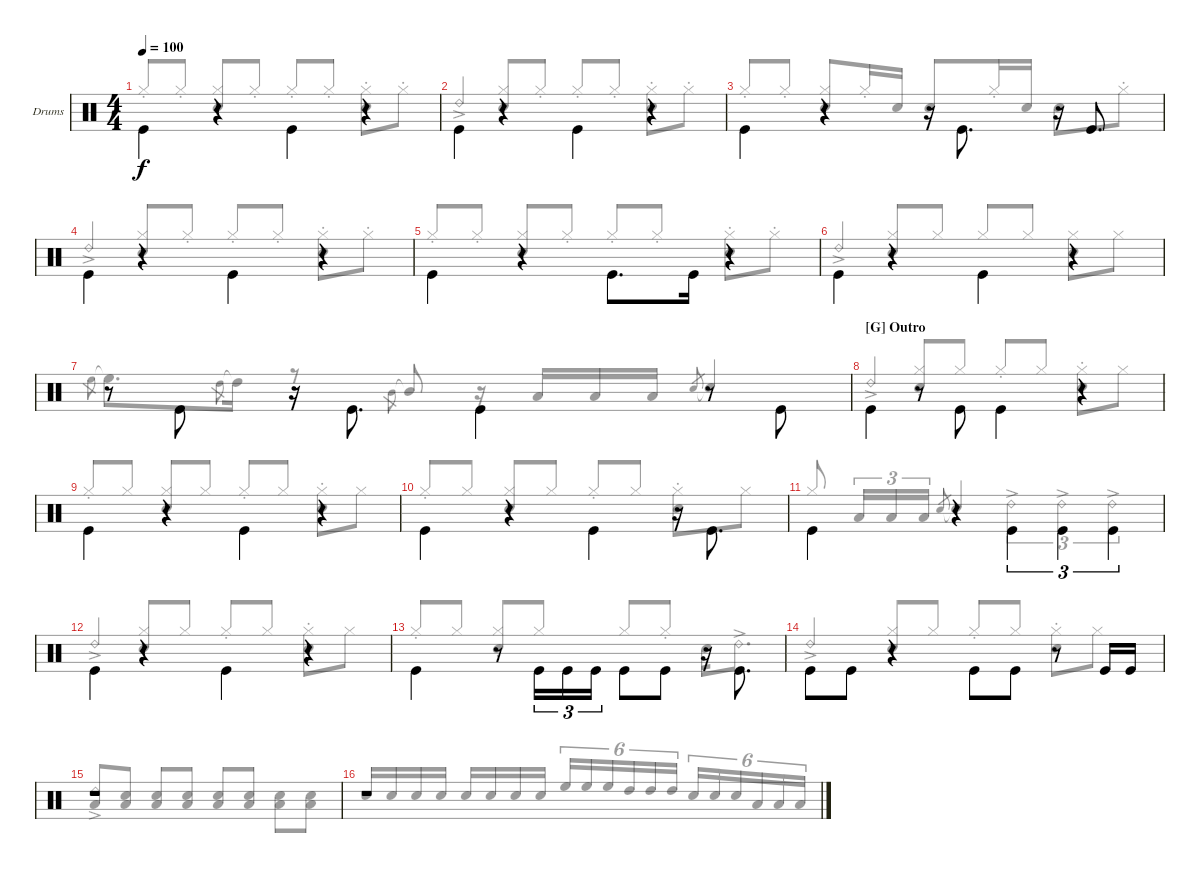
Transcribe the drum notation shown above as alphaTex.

\defaultSystemsLayout 4
\bracketExtendMode groupsimilarinstruments
\firstSystemTrackNameOrientation horizontal
\otherSystemsTrackNameOrientation horizontal
\track ("Drumkit" "Drums") {instrument percussion}
\staff {score}
\articulation defaults
\voice
\ts (4 4)
\tempo 100
\clef neutral
\scale
1.02648
\ks c "Kick (hit)".4{dy f beam invert}
r.4 "Kick (hit)".4{beam invert} r.4 |
\scale
0.973518 "Kick (hit)".4{beam invert} r.4 "Kick (hit)".4{beam invert} r.4 |
\scale
1.02648 "Kick (hit)".4{beam invert} r.4 r.16 "Kick (hit)".8{d beam invert} r.16 "Kick (hit)".8{d} |
\scale
0.973518 "Kick (hit)".4{beam invert} r.4{beam invert} "Kick (hit)".4{beam invert} r.4{beam invert} |
\scale
1.02648 "Kick (hit)".4{beam invert} r.4{beam invert} "Kick (hit)".8{d beam invert} "Kick (hit)".16 r.4{beam invert} |
\scale
0.973518 "Kick (hit)".4{beam invert} r.4{beam invert} "Kick (hit)".4{beam invert} r.4{beam invert} |
\scale
1.02648 r.8 "Kick (hit)".8{beam invert} r.16 "Kick (hit)".8{d} "Kick (hit)".4{beam invert} r.8{beam invert} "Kick (hit)".8{beam invert} |
\section ("G" "Outro")
\scale
0.973518 "Kick (hit)".4{beam invert} r.8{beam invert} "Kick (hit)".8{beam invert} "Kick (hit)".4{beam invert} r.4 |
\scale
1.02648 "Kick (hit)".4{beam invert} r.4{beam invert} "Kick (hit)".4{beam invert} r.4{beam invert} |
\scale
0.973518 "Kick (hit)".4{beam invert} r.4 "Kick (hit)".4{beam invert} r.16{beam invert} "Kick (hit)".8{d beam invert} |
\scale
1.02648 "Kick (hit)".4{beam invert} r.4 "Kick (hit)".4{tu (3 2) beam invert} "Kick (hit)".4{tu (3 2) beam invert} "Kick (hit)".4{tu (3 2) beam invert} |
\scale
0.973518 "Kick (hit)".4{beam invert} r.4{beam invert} "Kick (hit)".4{beam invert} r.4{beam invert} |
\scale
1.02648 "Kick (hit)".4{beam invert} r.8{beam invert} "Kick (hit)".16{tu (3 2) beam invert} "Kick (hit)".16{tu (3 2) beam invert} "Kick (hit)".16{tu (3 2) beam invert} "Kick (hit)".8{beam invert} "Kick (hit)".8 r.16 "Kick (hit)".8{d beam invert} |
\scale
0.973518 "Kick (hit)".8{beam invert} "Kick (hit)".8 r.4 "Kick (hit)".8{beam invert} "Kick (hit)".8 r.8 "Kick (hit)".16 "Kick (hit)".16 |
\scale
1.02648 r.1 |
\scale
0.973518 r.1
\voice
\clef neutral
\ottava regular
\simile none
\scale
1.02648
\ks c "Hi-Hat (closed)"{st}.8{dy f beam invert} "Hi-Hat (closed)"{st}.8
("Snare (hit) 2"{st} "Hi-Hat (closed)"{st}).8 "Hi-Hat (closed)"{st}.8 "Hi-Hat (closed)"{st}.8{beam invert} "Hi-Hat (closed)"{st}.8 ("Snare (hit) 2"{st} "Hi-Hat (closed)"{st}).8 "Hi-Hat (closed)"{st}.8 |
\scale
0.973518 "Ride (bell) 2"{ac}.4{beam invert} ("Snare (hit) 2"{st} "Hi-Hat (closed)"{st}).8{beam invert} "Hi-Hat (closed)"{st}.8 "Hi-Hat (closed)"{st}.8{beam invert} "Hi-Hat (closed)"{st}.8 ("Snare (hit) 2"{st} "Hi-Hat (closed)"{st}).8 "Hi-Hat (closed)"{st}.8 |
\scale
1.02648 "Hi-Hat (closed)"{st}.8{beam invert} "Hi-Hat (closed)"{st}.8 ("Snare (hit) 2"{st} "Hi-Hat (closed)"{st}).8 "Hi-Hat (closed)"{st}.16 "Snare (hit) 2".16 "Snare (hit) 2".8{beam invert} "Hi-Hat (closed)"{st}.16 "Snare (hit) 2".16 "Snare (hit) 2".8 "Hi-Hat (closed)"{st}.8 |
\scale
0.973518 "Ride (bell) 2"{ac}.4{beam invert} ("Snare (hit) 2"{st} "Hi-Hat (closed)"{st}).8{beam invert} "Hi-Hat (closed)"{st}.8 "Hi-Hat (closed)"{st}.8{beam invert} "Hi-Hat (closed)"{st}.8 ("Snare (hit) 2"{st} "Hi-Hat (closed)"{st}).8 "Hi-Hat (closed)"{st}.8 |
\scale
1.02648 "Hi-Hat (closed)"{st}.8{beam invert} "Hi-Hat (closed)"{st}.8 ("Snare (hit) 2"{st} "Hi-Hat (closed)"{st}).8 "Hi-Hat (closed)"{st}.8 "Hi-Hat (closed)"{st}.8{beam invert} "Hi-Hat (closed)"{st}.8 ("Snare (hit) 2"{st} "Hi-Hat (closed)"{st}).8 "Hi-Hat (closed)"{st}.8 |
\scale
0.973518 "Ride (bell) 2"{ac}.4{beam invert} ("Snare (hit) 2" "Hi-Hat (closed)").8{beam invert} "Hi-Hat (closed)".8 "Hi-Hat (closed)".8{beam invert} "Hi-Hat (closed)".8 ("Snare (hit) 2" "Hi-Hat (closed)").8 "Hi-Hat (closed)".8 |
\scale
1.02648 "High Floor Tom (hit)".8{gr} "High Floor Tom (hit)"{t}.8{d} "High Tom (hit)".8{gr} "High Tom (hit)"{t}.16 r.8 "Mid Tom (hit)".8{gr} "Mid Tom (hit)"{t}.8 r.16{beam invert} "Low Tom (hit)".16{beam invert} "Low Tom (hit)".16 "Low Tom (hit)".16 "Snare (hit) 2".8{gr beam invert} "Snare (hit) 2"{t}.4{beam invert} |
\scale
0.973518 "Ride (bell) 2"{ac}.4{beam invert} ("Hi-Hat (closed)"{st} "Snare (hit) 2"{st}).8{beam invert} "Hi-Hat (closed)".8 "Hi-Hat (closed)"{st}.8{beam invert} "Hi-Hat (closed)".8 ("Hi-Hat (closed)"{st} "Snare (hit) 2"{st}).8 "Hi-Hat (closed)".8 |
\scale
1.02648 "Hi-Hat (closed)"{st}.8{beam invert} "Hi-Hat (closed)".8 ("Hi-Hat (closed)"{st} "Snare (hit) 2"{st}).8 "Hi-Hat (closed)".8 "Hi-Hat (closed)"{st}.8{beam invert} "Hi-Hat (closed)".8 ("Hi-Hat (closed)"{st} "Snare (hit) 2"{st}).8 "Hi-Hat (closed)".8 |
\scale
0.973518 "Hi-Hat (closed)"{st}.8{beam invert} "Hi-Hat (closed)".8 ("Hi-Hat (closed)"{st} "Snare (hit) 2"{st}).8 "Hi-Hat (closed)".8 "Hi-Hat (closed)"{st}.8{beam invert} "Hi-Hat (closed)".8 ("Hi-Hat (closed)"{st} "Snare (hit) 2"{st}).8 "Hi-Hat (closed)".8 |
\scale
1.02648 "Hi-Hat (closed)".8 "Low Tom (hit)".16{tu (3 2) beam invert} "Low Tom (hit)".16{tu (3 2)} "Low Tom (hit)".16{tu (3 2)} "Snare (hit) 2".8{gr beam invert} "Snare (hit) 2"{t}.4{beam invert} "Ride (bell) 2"{ac}.4{tu (3 2)} "Ride (bell) 2"{ac}.4{tu (3 2)} "Ride (bell) 2"{ac}.4{tu (3 2)} |
\scale
0.973518 "Ride (bell) 2"{ac}.4{beam invert} ("Hi-Hat (closed)"{st} "Snare (hit) 2"{st}).8{beam invert} "Hi-Hat (closed)".8 "Hi-Hat (closed)"{st}.8{beam invert} "Hi-Hat (closed)".8 ("Hi-Hat (closed)"{st} "Snare (hit) 2"{st}).8 "Hi-Hat (closed)".8 |
\scale
1.02648 "Hi-Hat (closed)"{st}.8{beam invert} "Hi-Hat (closed)".8 ("Hi-Hat (closed)"{st} "Snare (hit) 2"{st}).8 "Hi-Hat (closed)".8 "Hi-Hat (closed)".8{beam invert} "Hi-Hat (closed)"{st}.8 "Snare (hit) 2".16 "Ride (bell) 2"{ac}.8{d} |
\scale
0.973518 "Ride (bell) 2"{ac}.4{beam invert} ("Hi-Hat (closed)"{st} "Snare (hit) 2"{st}).8{beam invert} "Hi-Hat (closed)".8 "Hi-Hat (closed)"{st}.8{beam invert} "Hi-Hat (closed)".8 ("Hi-Hat (closed)"{st} "Snare (hit) 2"{st}).8 "Hi-Hat (closed)".8 |
\scale
1.02648 ("Low Tom (hit)" "Ride (bell) 2"{ac}).8{beam invert} ("Low Tom (hit)" "Snare (hit) 2").8 ("Low Tom (hit)" "Snare (hit) 2").8 ("Low Tom (hit)" "Snare (hit) 2").8 ("Low Tom (hit)" "Snare (hit) 2").8{beam invert} ("Low Tom (hit)" "Snare (hit) 2").8 ("Low Tom (hit)" "Snare (hit) 2").8 ("Low Tom (hit)" "Snare (hit) 2").8 |
\scale
0.973518 "Snare (hit) 2".16{beam invert} "Snare (hit) 2".16 "Snare (hit) 2".16 "Snare (hit) 2".16 "Snare (hit) 2".16 "Snare (hit) 2".16 "Snare (hit) 2".16 "Snare (hit) 2".16 "High Floor Tom (hit)".16{tu (6 4) beam invert} "High Floor Tom (hit)".16{tu (6 4)} "High Floor Tom (hit)".16{tu (6 4)} "High Tom (hit)".16{tu (6 4)} "High Tom (hit)".16{tu (6 4)} "High Tom (hit)".16{tu (6 4)} "Snare (hit) 2".16{tu (6 4) beam invert} "Snare (hit) 2".16{tu (6 4)} "Snare (hit) 2".16{tu (6 4)} "Low Tom (hit)".16{tu (6 4)} "Low Tom (hit)".16{tu (6 4)} "Low Tom (hit)".16{tu (6 4)}
